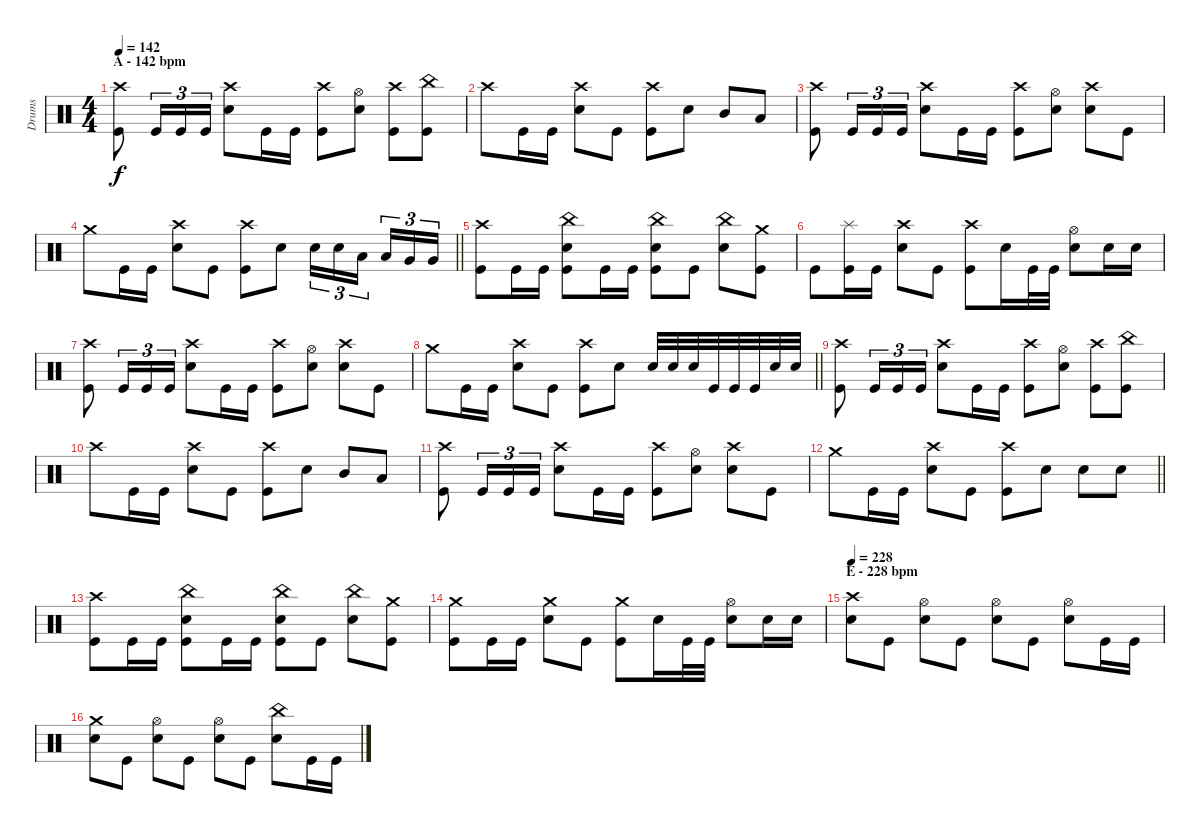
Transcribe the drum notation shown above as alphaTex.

\track ("Drums" "Drums") {instrument percussion}
\staff
\articulation defaults
\ts (4 4)
\section ("" "A - 142 bpm")
\tempo 142
\clef neutral
\ks c
("Crash high (hit)" "Kick (hit)").8{dy f} "Kick (hit)".16{tu (3 2)} "Kick (hit)".16{tu (3 2)} "Kick (hit)".16{tu (3 2)} ("Crash high (hit)" "Electric Snare (hit)").8 "Kick (hit)".16 "Kick (hit)".16 ("Crash high (hit)" "Kick (hit)").8 ("Hi-Hat (open)" "Electric Snare (hit)").8 ("Crash high (hit)" "Kick (hit)").8 ("China (hit)" "Kick (hit)").8 |
"Crash high (hit)".8 "Kick (hit)".16 "Kick (hit)".16 ("Crash high (hit)" "Electric Snare (hit)").8 "Kick (hit)".8 ("Crash high (hit)" "Kick (hit)").8 "Electric Snare (hit)".8 "Mid Tom (hit)".8 "Low Tom (hit)".8 |
("Crash high (hit)" "Kick (hit)").8 "Kick (hit)".16{tu (3 2)} "Kick (hit)".16{tu (3 2)} "Kick (hit)".16{tu (3 2)} ("Crash high (hit)" "Electric Snare (hit)").8 "Kick (hit)".16 "Kick (hit)".16 ("Crash high (hit)" "Kick (hit)").8 ("Hi-Hat (open)" "Electric Snare (hit)").8 ("Crash high (hit)" "Electric Snare (hit)").8 "Kick (hit)".8 |
\barLineRight lightlight "Crash medium (hit)".8 "Kick (hit)".16 "Kick (hit)".16
("Crash high (hit)" "Electric Snare (hit)").8 "Kick (hit)".8 ("Crash high (hit)" "Kick (hit)").8 "Electric Snare (hit)".8 "Electric Snare (hit)".16{tu (3 2)} "Electric Snare (hit)".16{tu (3 2)} "Low Tom (hit)".16{tu (3 2) beam splitsecondary} "Low Tom (hit)".16{tu (3 2)} "Very Low Tom (hit)".16{tu (3 2)} "Very Low Tom (hit)".16{tu (3 2)} |
("Crash high (hit)" "Kick (hit)").8 "Kick (hit)".16 "Kick (hit)".16 ("China (hit)" "Electric Snare (hit)" "Kick (hit)").8 "Kick (hit)".16 "Kick (hit)".16 ("China (hit)" "Electric Snare (hit)" "Kick (hit)").8 "Kick (hit)".8 ("China (hit)" "Electric Snare (hit)").8 ("Crash medium (hit)" "Kick (hit)").8 |
"Kick (hit)".8 ("Splash (hit)" "Kick (hit)").16 "Kick (hit)".16 ("Crash high (hit)" "Electric Snare (hit)").8 "Kick (hit)".8 ("Crash high (hit)" "Kick (hit)").8 "Electric Snare (hit)".16 "Kick (hit)".32 "Kick (hit)".32 ("Hi-Hat (open)" "Electric Snare (hit)").8 "Electric Snare (hit)".16 "Electric Snare (hit)".16 |
("Crash high (hit)" "Kick (hit)").8 "Kick (hit)".16{tu (3 2)} "Kick (hit)".16{tu (3 2)} "Kick (hit)".16{tu (3 2)} ("Crash high (hit)" "Electric Snare (hit)").8 "Kick (hit)".16 "Kick (hit)".16 ("Crash high (hit)" "Kick (hit)").8 ("Hi-Hat (open)" "Electric Snare (hit)").8 ("Crash high (hit)" "Electric Snare (hit)").8 "Kick (hit)".8 |
\barLineRight lightlight "Crash medium (hit)".8 "Kick (hit)".16 "Kick (hit)".16
("Crash high (hit)" "Electric Snare (hit)").8 "Kick (hit)".8 ("Crash high (hit)" "Kick (hit)").8 "Electric Snare (hit)".8 "Electric Snare (hit)".32 "Electric Snare (hit)".32 "Electric Snare (hit)".32 "Kick (hit)".32 "Kick (hit)".32 "Kick (hit)".32 "Electric Snare (hit)".32 "Electric Snare (hit)".32 |
("Crash high (hit)" "Kick (hit)").8 "Kick (hit)".16{tu (3 2)} "Kick (hit)".16{tu (3 2)} "Kick (hit)".16{tu (3 2)} ("Crash high (hit)" "Electric Snare (hit)").8 "Kick (hit)".16 "Kick (hit)".16 ("Crash high (hit)" "Kick (hit)").8 ("Hi-Hat (open)" "Electric Snare (hit)").8 ("Crash high (hit)" "Kick (hit)").8 ("China (hit)" "Kick (hit)").8 |
"Crash high (hit)".8 "Kick (hit)".16 "Kick (hit)".16 ("Crash high (hit)" "Electric Snare (hit)").8 "Kick (hit)".8 ("Crash high (hit)" "Kick (hit)").8 "Electric Snare (hit)".8 "Mid Tom (hit)".8 "Low Tom (hit)".8 |
("Crash high (hit)" "Kick (hit)").8 "Kick (hit)".16{tu (3 2)} "Kick (hit)".16{tu (3 2)} "Kick (hit)".16{tu (3 2)} ("Crash high (hit)" "Electric Snare (hit)").8 "Kick (hit)".16 "Kick (hit)".16 ("Crash high (hit)" "Kick (hit)").8 ("Hi-Hat (open)" "Electric Snare (hit)").8 ("Crash high (hit)" "Electric Snare (hit)").8 "Kick (hit)".8 |
\barLineRight lightlight "Crash medium (hit)".8 "Kick (hit)".16 "Kick (hit)".16
("Crash high (hit)" "Electric Snare (hit)").8 "Kick (hit)".8 ("Crash high (hit)" "Kick (hit)").8 "Electric Snare (hit)".8 "Electric Snare (hit)".8 "Electric Snare (hit)".8 |
("Crash high (hit)" "Kick (hit)").8 "Kick (hit)".16 "Kick (hit)".16 ("China (hit)" "Electric Snare (hit)" "Kick (hit)").8 "Kick (hit)".16 "Kick (hit)".16 ("China (hit)" "Electric Snare (hit)" "Kick (hit)").8 "Kick (hit)".8 ("China (hit)" "Electric Snare (hit)").8 ("Crash medium (hit)" "Kick (hit)").8 |
("Crash medium (hit)" "Kick (hit)").8 "Kick (hit)".16 "Kick (hit)".16 ("Crash medium (hit)" "Electric Snare (hit)").8 "Kick (hit)".8 ("Crash medium (hit)" "Kick (hit)").8 "Electric Snare (hit)".16 "Kick (hit)".32 "Kick (hit)".32 ("Hi-Hat (open)" "Electric Snare (hit)").8 "Electric Snare (hit)".16 "Electric Snare (hit)".16 |
\section ("" "E - 228 bpm")
\tempo 228
("Crash high (hit)" "Electric Snare (hit)").8 "Kick (hit)".8 ("Hi-Hat (open)" "Electric Snare (hit)").8 "Kick (hit)".8 ("Hi-Hat (open)" "Electric Snare (hit)").8 "Kick (hit)".8 ("Hi-Hat (open)" "Electric Snare (hit)").8 "Kick (hit)".16 "Kick (hit)".16 |
("Crash medium (hit)" "Electric Snare (hit)").8 "Kick (hit)".8 ("Hi-Hat (open)" "Electric Snare (hit)").8 "Kick (hit)".8 ("Hi-Hat (open)" "Electric Snare (hit)").8 "Kick (hit)".8 ("China (hit)" "Electric Snare (hit)").8 "Kick (hit)".16 "Kick (hit)".16
